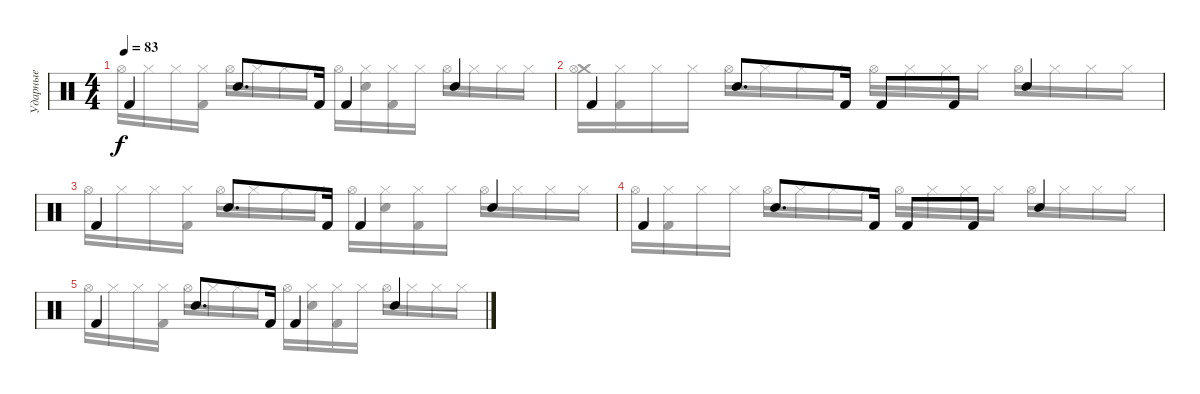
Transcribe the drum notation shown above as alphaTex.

\track ("Ударные" "Ударные") {instrument percussion}
\staff {score}
\articulation defaults
\voice
\ts (4 4)
\tempo 83
\clef neutral
\ks c "Kick (hit) 2".4{dy f} "Snare (hit) 2".8{d} "Kick (hit) 2".16 "Kick (hit) 2".4 "Snare (hit) 2".4
|
"Kick (hit) 2".4 "Snare (hit) 2".8{d} "Kick (hit) 2".16 "Kick (hit) 2".8 "Kick (hit) 2".8 "Snare (hit) 2".4 |
"Kick (hit) 2".4 "Snare (hit) 2".8{d} "Kick (hit) 2".16 "Kick (hit) 2".4 "Snare (hit) 2".4 |
"Kick (hit) 2".4 "Snare (hit) 2".8{d} "Kick (hit) 2".16 "Kick (hit) 2".8 "Kick (hit) 2".8 "Snare (hit) 2".4 |
"Kick (hit) 2".4 "Snare (hit) 2".8{d} "Kick (hit) 2".16 "Kick (hit) 2".4 "Snare (hit) 2".4 |
\voice
\clef neutral
\ottava regular
\simile none
\ks c "Hi-Hat (open)".16{dy f} "Hi-Hat (closed)".16 "Hi-Hat (closed)".16
("Hi-Hat (closed)" "Kick (hit) 2").16 "Hi-Hat (open)".16 "Hi-Hat (closed)".16 "Hi-Hat (closed)".16 "Hi-Hat (closed)".16 "Hi-Hat (open)".16 ("Hi-Hat (closed)" "Snare (hit) 2").16 ("Hi-Hat (closed)" "Kick (hit) 2").16 "Hi-Hat (closed)".16 "Hi-Hat (open)".16 "Hi-Hat (closed)".16 "Hi-Hat (closed)".16 "Hi-Hat (closed)".16 |
("Crash medium (hit)" "Hi-Hat (open)").16 ("Hi-Hat (closed)" "Kick (hit) 2").16 "Hi-Hat (closed)".16 "Hi-Hat (closed)".16 "Hi-Hat (open)".16 "Hi-Hat (closed)".16 "Hi-Hat (closed)".16 "Hi-Hat (closed)".16 "Hi-Hat (open)".16 "Hi-Hat (closed)".16 "Hi-Hat (closed)".16 "Hi-Hat (closed)".16 "Hi-Hat (open)".16 "Hi-Hat (closed)".16 "Hi-Hat (closed)".16 "Hi-Hat (closed)".16 |
"Hi-Hat (open)".16 "Hi-Hat (closed)".16 "Hi-Hat (closed)".16 ("Hi-Hat (closed)" "Kick (hit) 2").16 "Hi-Hat (open)".16 "Hi-Hat (closed)".16 "Hi-Hat (closed)".16 "Hi-Hat (closed)".16 "Hi-Hat (open)".16 ("Hi-Hat (closed)" "Snare (hit) 2").16 ("Hi-Hat (closed)" "Kick (hit) 2").16 "Hi-Hat (closed)".16 "Hi-Hat (open)".16 "Hi-Hat (closed)".16 "Hi-Hat (closed)".16 "Hi-Hat (closed)".16 |
"Hi-Hat (open)".16 ("Hi-Hat (closed)" "Kick (hit) 2").16 "Hi-Hat (closed)".16 "Hi-Hat (closed)".16 "Hi-Hat (open)".16 "Hi-Hat (closed)".16 "Hi-Hat (closed)".16 "Hi-Hat (closed)".16 "Hi-Hat (open)".16 "Hi-Hat (closed)".16 "Hi-Hat (closed)".16 "Hi-Hat (closed)".16 "Hi-Hat (open)".16 "Hi-Hat (closed)".16 "Hi-Hat (closed)".16 "Hi-Hat (closed)".16 |
"Hi-Hat (open)".16 "Hi-Hat (closed)".16 "Hi-Hat (closed)".16 ("Hi-Hat (closed)" "Kick (hit) 2").16 "Hi-Hat (open)".16 "Hi-Hat (closed)".16 "Hi-Hat (closed)".16 "Hi-Hat (closed)".16 "Hi-Hat (open)".16 ("Hi-Hat (closed)" "Snare (hit) 2").16 ("Hi-Hat (closed)" "Kick (hit) 2").16 "Hi-Hat (closed)".16 "Hi-Hat (open)".16 "Hi-Hat (closed)".16 "Hi-Hat (closed)".16 "Hi-Hat (closed)".16 |
